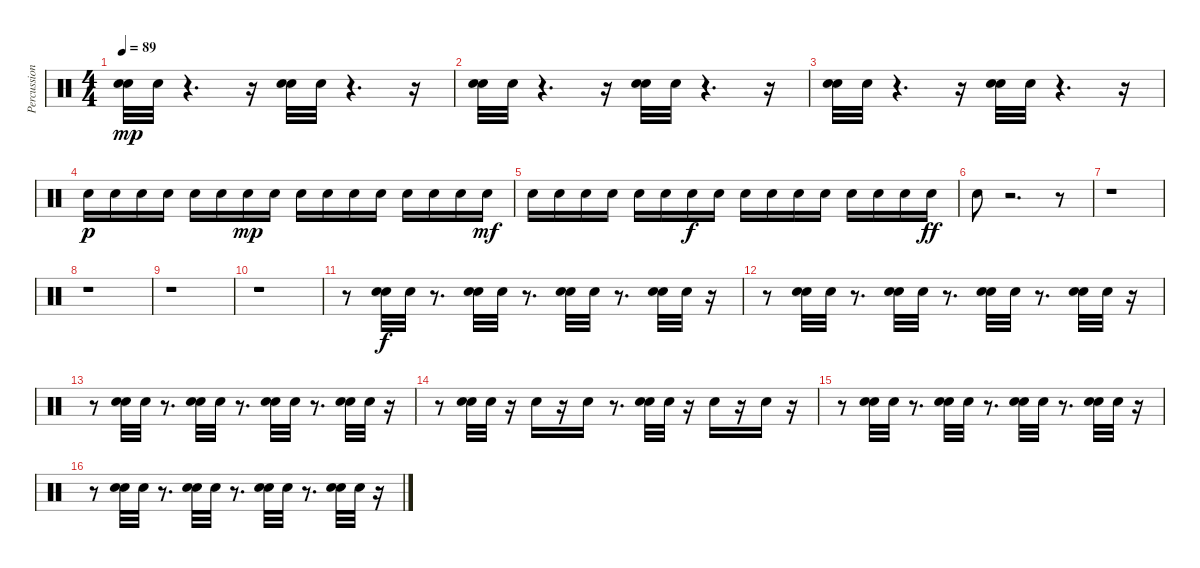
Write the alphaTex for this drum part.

\track ("Percussion" "Percussion") {instrument percussion}
\staff {score}
\articulation defaults
\ts (4 4)
\tempo 89
\clef neutral
\ks c
("Snare (hit) 2" "Snare (hit) 2").32{dy mp} "Snare (hit) 2".32 r.4{d} r.16 ("Snare (hit) 2" "Snare (hit) 2").32 "Snare (hit) 2".32 r.4{d} r.16 |
("Snare (hit) 2" "Snare (hit) 2").32 "Snare (hit) 2".32 r.4{d} r.16 ("Snare (hit) 2" "Snare (hit) 2").32 "Snare (hit) 2".32 r.4{d} r.16 |
("Snare (hit) 2" "Snare (hit) 2").32 "Snare (hit) 2".32 r.4{d} r.16 ("Snare (hit) 2" "Snare (hit) 2").32 "Snare (hit) 2".32 r.4{d} r.16 |
"Snare (hit) 2".16{dy p} "Snare (hit) 2".16 "Snare (hit) 2".16 "Snare (hit) 2".16 "Snare (hit) 2".16 "Snare (hit) 2".16 "Snare (hit) 2".16{dy mp} "Snare (hit) 2".16 "Snare (hit) 2".16 "Snare (hit) 2".16 "Snare (hit) 2".16 "Snare (hit) 2".16 "Snare (hit) 2".16 "Snare (hit) 2".16 "Snare (hit) 2".16 "Snare (hit) 2".16{dy mf} |
"Snare (hit) 2".16 "Snare (hit) 2".16 "Snare (hit) 2".16 "Snare (hit) 2".16 "Snare (hit) 2".16 "Snare (hit) 2".16 "Snare (hit) 2".16{dy f} "Snare (hit) 2".16 "Snare (hit) 2".16 "Snare (hit) 2".16 "Snare (hit) 2".16 "Snare (hit) 2".16 "Snare (hit) 2".16 "Snare (hit) 2".16 "Snare (hit) 2".16 "Snare (hit) 2".16{dy ff} |
"Snare (hit) 2".8 r.2{d} r.8 |
r.1 |
r.1 |
r.1 |
r.1 |
r.8 ("Snare (hit) 2" "Snare (hit) 2").32{dy f} "Snare (hit) 2".32 r.8{d} ("Snare (hit) 2" "Snare (hit) 2").32 "Snare (hit) 2".32 r.8{d} ("Snare (hit) 2" "Snare (hit) 2").32 "Snare (hit) 2".32 r.8{d} ("Snare (hit) 2" "Snare (hit) 2").32 "Snare (hit) 2".32 r.16 |
r.8 ("Snare (hit) 2" "Snare (hit) 2").32 "Snare (hit) 2".32 r.8{d} ("Snare (hit) 2" "Snare (hit) 2").32 "Snare (hit) 2".32 r.8{d} ("Snare (hit) 2" "Snare (hit) 2").32 "Snare (hit) 2".32 r.8{d} ("Snare (hit) 2" "Snare (hit) 2").32 "Snare (hit) 2".32 r.16 |
r.8 ("Snare (hit) 2" "Snare (hit) 2").32 "Snare (hit) 2".32 r.8{d} ("Snare (hit) 2" "Snare (hit) 2").32 "Snare (hit) 2".32 r.8{d} ("Snare (hit) 2" "Snare (hit) 2").32 "Snare (hit) 2".32 r.8{d} ("Snare (hit) 2" "Snare (hit) 2").32 "Snare (hit) 2".32 r.16 |
r.8 ("Snare (hit) 2" "Snare (hit) 2").32 "Snare (hit) 2".32 r.16 "Snare (hit) 2".16 r.16 "Snare (hit) 2".16 r.8{d} ("Snare (hit) 2" "Snare (hit) 2").32 "Snare (hit) 2".32 r.16 "Snare (hit) 2".16 r.16 "Snare (hit) 2".16 r.16 |
r.8 ("Snare (hit) 2" "Snare (hit) 2").32 "Snare (hit) 2".32 r.8{d} ("Snare (hit) 2" "Snare (hit) 2").32 "Snare (hit) 2".32 r.8{d} ("Snare (hit) 2" "Snare (hit) 2").32 "Snare (hit) 2".32 r.8{d} ("Snare (hit) 2" "Snare (hit) 2").32 "Snare (hit) 2".32 r.16 |
r.8 ("Snare (hit) 2" "Snare (hit) 2").32 "Snare (hit) 2".32 r.8{d} ("Snare (hit) 2" "Snare (hit) 2").32 "Snare (hit) 2".32 r.8{d} ("Snare (hit) 2" "Snare (hit) 2").32 "Snare (hit) 2".32 r.8{d} ("Snare (hit) 2" "Snare (hit) 2").32 "Snare (hit) 2".32 r.16
